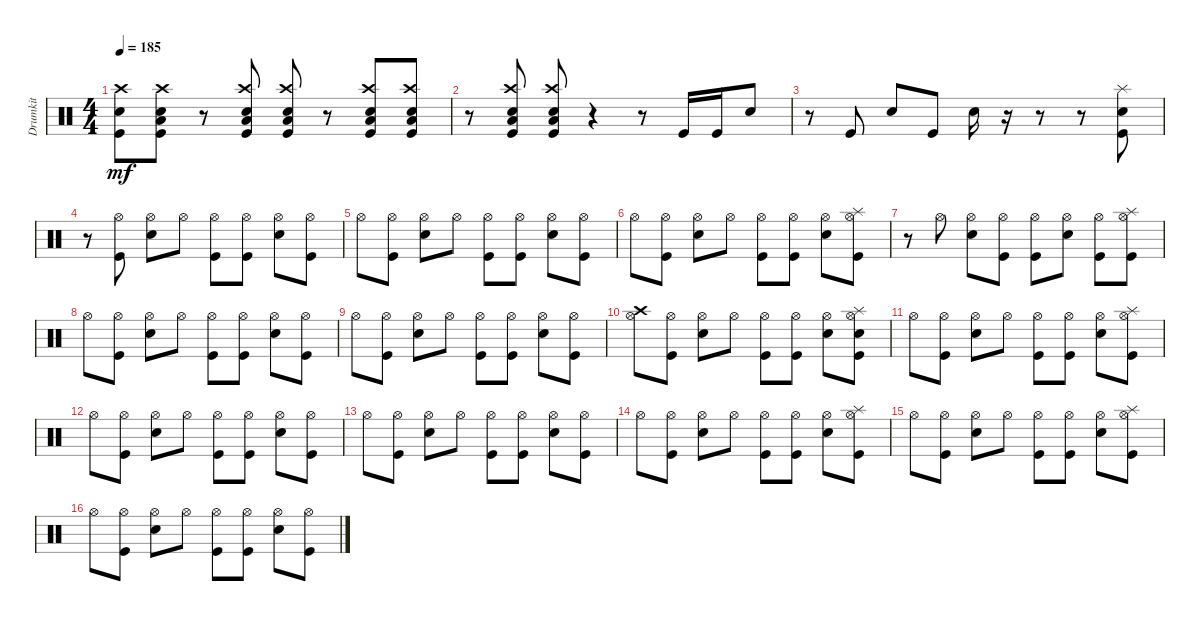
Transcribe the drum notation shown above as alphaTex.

\track ("Drumkit" "Drumkit") {instrument percussion}
\staff {score}
\articulation defaults
\ts (4 4)
\tempo 185
\clef neutral
\ks c
("Kick (hit)" "Snare (hit) 2" "Crash high (hit)").8{dy mf} ("Kick (hit)" "Snare (hit) 2" "Crash high (hit)" "Low Floor Tom (hit)").8 r.8 ("Kick (hit)" "Snare (hit) 2" "Crash high (hit)" "Low Floor Tom (hit)").8 ("Kick (hit)" "Snare (hit) 2" "Crash high (hit)" "Low Floor Tom (hit)").8 r.8 ("Kick (hit)" "Snare (hit) 2" "Crash high (hit)" "Low Floor Tom (hit)").8 ("Kick (hit)" "Snare (hit) 2" "Crash high (hit)" "Low Floor Tom (hit)").8 |
r.8 ("Snare (hit) 2" "Crash high (hit)" "Low Floor Tom (hit)" "Kick (hit)").8 ("Snare (hit) 2" "Crash high (hit)" "Low Floor Tom (hit)" "Kick (hit)").8 r.4 r.8 "Kick (hit)".16 "Kick (hit)".16 "Snare (hit) 2".8 |
r.8 "Kick (hit)".8 "Snare (hit) 2".8 "Kick (hit)".8 "Snare (hit) 2".16 r.16 r.8 r.8 ("Kick (hit)" "Snare (hit) 2" "Splash (hit)").8 |
r.8 ("Kick (hit)" "Hi-Hat (open)").8 ("Snare (hit) 2" "Hi-Hat (open)").8 "Hi-Hat (open)".8 ("Hi-Hat (open)" "Kick (hit)").8 ("Kick (hit)" "Hi-Hat (open)").8 ("Snare (hit) 2" "Hi-Hat (open)").8 ("Kick (hit)" "Hi-Hat (open)").8 |
"Hi-Hat (open)".8 ("Hi-Hat (open)" "Kick (hit)").8 ("Snare (hit) 2" "Hi-Hat (open)").8 "Hi-Hat (open)".8 ("Hi-Hat (open)" "Kick (hit)").8 ("Kick (hit)" "Hi-Hat (open)").8 ("Snare (hit) 2" "Hi-Hat (open)").8 ("Kick (hit)" "Hi-Hat (open)").8 |
"Hi-Hat (open)".8 ("Hi-Hat (open)" "Kick (hit)").8 ("Snare (hit) 2" "Hi-Hat (open)").8 "Hi-Hat (open)".8 ("Hi-Hat (open)" "Kick (hit)").8 ("Kick (hit)" "Hi-Hat (open)").8 ("Snare (hit) 2" "Hi-Hat (open)").8 ("Kick (hit)" "Hi-Hat (open)" "Splash (hit)").8 |
r.8 "Hi-Hat (open)".8 ("Hi-Hat (open)" "Snare (hit) 2").8 ("Kick (hit)" "Hi-Hat (open)").8 ("Hi-Hat (open)" "Kick (hit)").8 ("Hi-Hat (open)" "Snare (hit) 2").8 ("Hi-Hat (open)" "Kick (hit)").8 ("Hi-Hat (open)" "Kick (hit)" "Splash (hit)").8 |
"Hi-Hat (open)".8 ("Hi-Hat (open)" "Kick (hit)").8 ("Snare (hit) 2" "Hi-Hat (open)").8 "Hi-Hat (open)".8 ("Hi-Hat (open)" "Kick (hit)").8 ("Kick (hit)" "Hi-Hat (open)").8 ("Snare (hit) 2" "Hi-Hat (open)").8 ("Kick (hit)" "Hi-Hat (open)").8 |
"Hi-Hat (open)".8 ("Hi-Hat (open)" "Kick (hit)").8 ("Snare (hit) 2" "Hi-Hat (open)").8 "Hi-Hat (open)".8 ("Hi-Hat (open)" "Kick (hit)").8 ("Kick (hit)" "Hi-Hat (open)").8 ("Snare (hit) 2" "Hi-Hat (open)").8 ("Kick (hit)" "Hi-Hat (open)").8 |
("Hi-Hat (open)" "Crash high (hit)").8 ("Hi-Hat (open)" "Kick (hit)").8 ("Snare (hit) 2" "Hi-Hat (open)").8 "Hi-Hat (open)".8 ("Hi-Hat (open)" "Kick (hit)").8 ("Kick (hit)" "Hi-Hat (open)").8 ("Snare (hit) 2" "Hi-Hat (open)").8 ("Kick (hit)" "Hi-Hat (open)" "Splash (hit)" "Snare (hit) 2").8 |
"Hi-Hat (open)".8 ("Hi-Hat (open)" "Kick (hit)").8 ("Snare (hit) 2" "Hi-Hat (open)").8 "Hi-Hat (open)".8 ("Hi-Hat (open)" "Kick (hit)").8 ("Kick (hit)" "Hi-Hat (open)").8 ("Snare (hit) 2" "Hi-Hat (open)").8 ("Kick (hit)" "Hi-Hat (open)" "Splash (hit)").8 |
"Hi-Hat (open)".8 ("Hi-Hat (open)" "Kick (hit)").8 ("Snare (hit) 2" "Hi-Hat (open)").8 "Hi-Hat (open)".8 ("Hi-Hat (open)" "Kick (hit)").8 ("Kick (hit)" "Hi-Hat (open)").8 ("Snare (hit) 2" "Hi-Hat (open)").8 ("Kick (hit)" "Hi-Hat (open)").8 |
"Hi-Hat (open)".8 ("Hi-Hat (open)" "Kick (hit)").8 ("Snare (hit) 2" "Hi-Hat (open)").8 "Hi-Hat (open)".8 ("Hi-Hat (open)" "Kick (hit)").8 ("Kick (hit)" "Hi-Hat (open)").8 ("Snare (hit) 2" "Hi-Hat (open)").8 ("Kick (hit)" "Hi-Hat (open)").8 |
"Hi-Hat (open)".8 ("Hi-Hat (open)" "Kick (hit)").8 ("Snare (hit) 2" "Hi-Hat (open)").8 "Hi-Hat (open)".8 ("Hi-Hat (open)" "Kick (hit)").8 ("Kick (hit)" "Hi-Hat (open)").8 ("Snare (hit) 2" "Hi-Hat (open)").8 ("Kick (hit)" "Hi-Hat (open)" "Splash (hit)").8 |
"Hi-Hat (open)".8 ("Hi-Hat (open)" "Kick (hit)").8 ("Snare (hit) 2" "Hi-Hat (open)").8 "Hi-Hat (open)".8 ("Hi-Hat (open)" "Kick (hit)").8 ("Kick (hit)" "Hi-Hat (open)").8 ("Snare (hit) 2" "Hi-Hat (open)").8 ("Kick (hit)" "Hi-Hat (open)" "Splash (hit)").8 |
"Hi-Hat (open)".8 ("Hi-Hat (open)" "Kick (hit)").8 ("Snare (hit) 2" "Hi-Hat (open)").8 "Hi-Hat (open)".8 ("Hi-Hat (open)" "Kick (hit)").8 ("Kick (hit)" "Hi-Hat (open)").8 ("Snare (hit) 2" "Hi-Hat (open)").8 ("Kick (hit)" "Hi-Hat (open)").8
